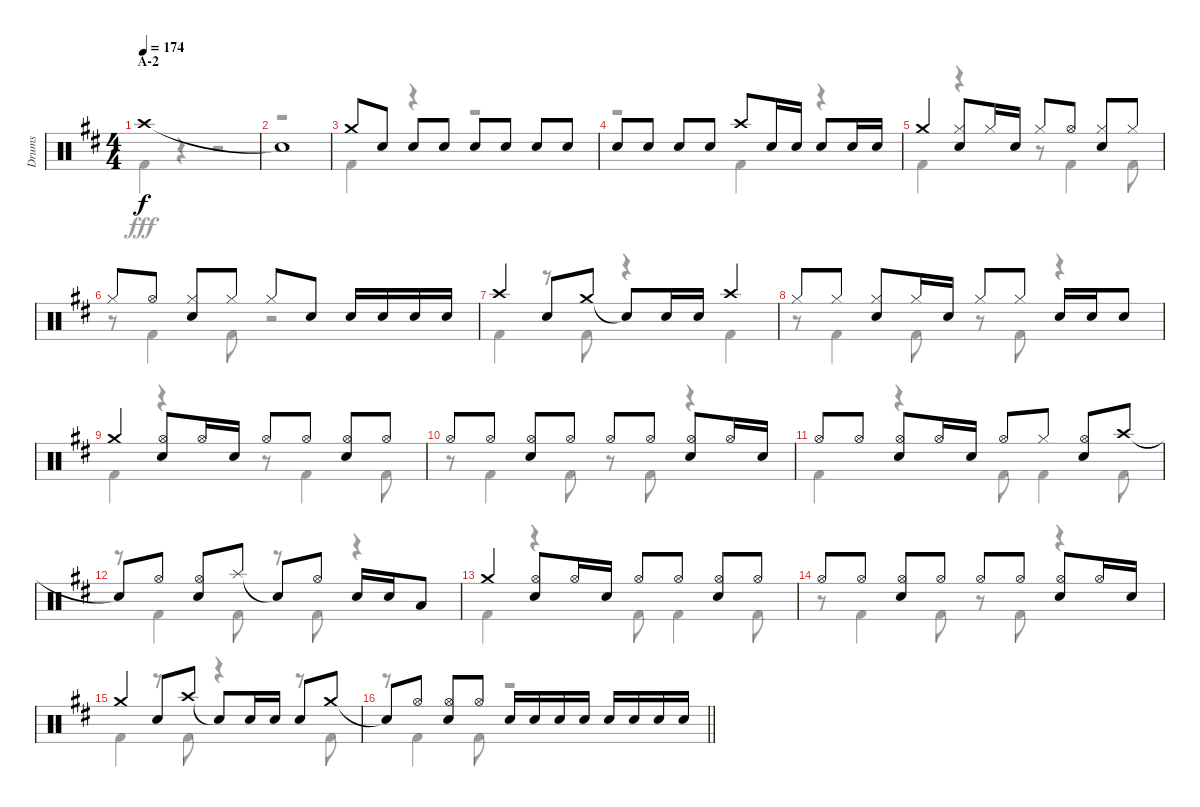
\track ("Drums" "Drums") {instrument percussion}
\staff {score}
\articulation defaults
\voice
\ts (4 4)
\section ("" "A-2")
\tempo 174
\clef neutral
\ks bminor "Crash high (hit)".1{dy f}
|
"Snare (hit)"{t}.1 |
"Crash medium (hit)".8 "Snare (hit) 2".8 "Snare (hit) 2".8 "Snare (hit) 2".8 "Snare (hit) 2".8 "Snare (hit) 2".8 "Snare (hit) 2".8 "Snare (hit) 2".8 |
"Snare (hit) 2".8 "Snare (hit) 2".8 "Snare (hit) 2".8 "Snare (hit) 2".8 "Crash high (hit)".8 "Snare (hit) 2".16 "Snare (hit) 2".16 "Snare (hit) 2".8 "Snare (hit) 2".16 "Snare (hit) 2".16 |
"Crash medium (hit)".4 ("Hi-Hat (closed)" "Snare (hit) 2").8 "Hi-Hat (closed)".16 "Snare (hit) 2".16 "Hi-Hat (closed)".8 "Hi-Hat (open)".8 ("Hi-Hat (closed)" "Snare (hit) 2").8 "Hi-Hat (closed)".8 |
"Hi-Hat (closed)".8 "Hi-Hat (open)".8 ("Hi-Hat (closed)" "Snare (hit) 2").8 "Hi-Hat (closed)".8 "Hi-Hat (closed)".8 "Snare (hit) 2".8 "Snare (hit) 2".16 "Snare (hit) 2".16 "Snare (hit) 2".16 "Snare (hit) 2".16 |
"Crash high (hit)".4 "Snare (hit) 2".8 "Crash medium (hit)".8 "Snare (hit)"{t}.8 "Snare (hit) 2".16 "Snare (hit) 2".16 "Crash high (hit)".4 |
"Hi-Hat (closed)".8 "Hi-Hat (closed)".8 ("Hi-Hat (closed)" "Snare (hit) 2").8 "Hi-Hat (closed)".16 "Snare (hit) 2".16 "Hi-Hat (closed)".8 "Hi-Hat (closed)".8 "Snare (hit) 2".16 "Snare (hit) 2".16 "Snare (hit) 2".8 |
"Crash medium (hit)".4 ("Hi-Hat (open)" "Snare (hit) 2").8 "Hi-Hat (open)".16 "Snare (hit) 2".16 "Hi-Hat (open)".8 "Hi-Hat (open)".8 ("Hi-Hat (open)" "Snare (hit) 2").8 "Hi-Hat (open)".8 |
"Hi-Hat (open)".8 "Hi-Hat (open)".8 ("Hi-Hat (open)" "Snare (hit) 2").8 "Hi-Hat (open)".8 "Hi-Hat (open)".8 "Hi-Hat (open)".8 ("Hi-Hat (open)" "Snare (hit) 2").8 "Hi-Hat (open)".16 "Snare (hit) 2".16 |
"Hi-Hat (open)".8 "Hi-Hat (open)".8 ("Hi-Hat (open)" "Snare (hit) 2").8 "Hi-Hat (open)".16 "Snare (hit) 2".16 "Hi-Hat (open)".8 "Hi-Hat (closed)".8 ("Hi-Hat (open)" "Snare (hit) 2").8 "Crash high (hit)".8 |
"Snare (hit)"{t}.8 "Hi-Hat (open)".8 ("Hi-Hat (open)" "Snare (hit) 2").8 "Splash (hit)".8 "Snare (hit)"{t}.8 "Hi-Hat (open)".8 "Snare (hit) 2".16 "Snare (hit) 2".16 "Low Tom (hit)".8 |
"Crash medium (hit)".4 ("Hi-Hat (open)" "Snare (hit) 2").8 "Hi-Hat (open)".16 "Snare (hit) 2".16 "Hi-Hat (open)".8 "Hi-Hat (open)".8 ("Hi-Hat (open)" "Snare (hit) 2").8 "Hi-Hat (open)".8 |
"Hi-Hat (open)".8 "Hi-Hat (open)".8 ("Hi-Hat (open)" "Snare (hit) 2").8 "Hi-Hat (open)".8 "Hi-Hat (open)".8 "Hi-Hat (open)".8 ("Hi-Hat (open)" "Snare (hit) 2").8 "Hi-Hat (open)".16 "Snare (hit) 2".16 |
"Crash medium (hit)".4 "Snare (hit) 2".8 "Crash high (hit)".8 "Snare (hit)"{t}.8 "Snare (hit) 2".16 "Snare (hit) 2".16 "Snare (hit) 2".8 "Crash medium (hit)".8 |
\barLineRight lightlight "Snare (hit)"{t}.8 "Hi-Hat (open)".8
("Hi-Hat (open)" "Snare (hit) 2").8 "Hi-Hat (open)".8 "Snare (hit) 2".16 "Snare (hit) 2".16 "Snare (hit) 2".16 "Snare (hit) 2".16 "Snare (hit) 2".16 "Snare (hit) 2".16 "Snare (hit) 2".16 "Snare (hit) 2".16
\voice
\clef neutral
\ottava regular
\simile none
\ks bminor "Kick (hit) 2".4{dy fff}
r.4 r.2 |
r.1 |
"Kick (hit) 2".4 r.4 r.2 |
r.2 "Kick (hit) 2".4 r.4 |
"Kick (hit) 2".4 r.4 r.8 "Kick (hit) 2".4 "Kick (hit) 2".8 |
r.8 "Kick (hit) 2".4 "Kick (hit) 2".8 r.2 |
"Kick (hit) 2".4 r.8 "Kick (hit) 2".8 r.4 "Kick (hit) 2".4 |
r.8 "Kick (hit) 2".4 "Kick (hit) 2".8 r.8 "Kick (hit) 2".8 r.4 |
"Kick (hit) 2".4 r.4 r.8 "Kick (hit) 2".4 "Kick (hit) 2".8 |
r.8 "Kick (hit) 2".4 "Kick (hit) 2".8 r.8 "Kick (hit) 2".8 r.4 |
"Kick (hit) 2".4 r.4 "Kick (hit) 2".8 "Kick (hit) 2".4 "Kick (hit) 2".8 |
r.8 "Kick (hit) 2".4 "Kick (hit) 2".8 r.8 "Kick (hit) 2".8 r.4 |
"Kick (hit) 2".4 r.4 "Kick (hit) 2".8 "Kick (hit) 2".4 "Kick (hit) 2".8 |
r.8 "Kick (hit) 2".4 "Kick (hit) 2".8 r.8 "Kick (hit) 2".8 r.4 |
"Kick (hit) 2".4 r.8 "Kick (hit) 2".8 r.4 r.8 "Kick (hit) 2".8 |
\barLineRight lightlight
r.8 "Kick (hit) 2".4 "Kick (hit) 2".8 r.2
